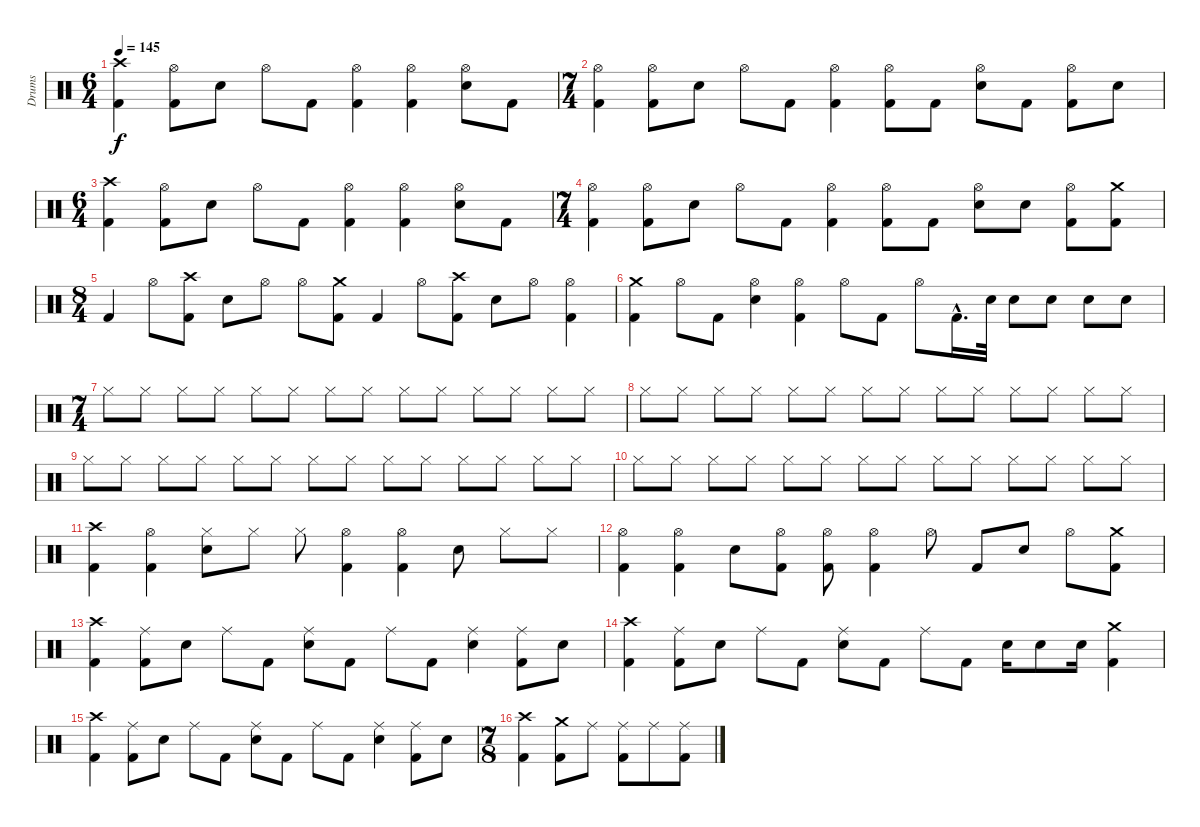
\track ("Drums" "Drums") {instrument percussion}
\staff {score}
\articulation defaults
\ts (6 4)
\tempo 145
\clef neutral
\ks c
("Crash high (hit)" "Kick (hit) 2").4{dy f} ("Hi-Hat (open)" "Kick (hit) 2").8 "Snare (hit) 2".8 "Hi-Hat (open)".8 "Kick (hit) 2".8 ("Hi-Hat (open)" "Kick (hit) 2").4 ("Hi-Hat (open)" "Kick (hit) 2").4 ("Hi-Hat (open)" "Snare (hit) 2").8 "Kick (hit) 2".8 |
\ts (7 4)
("Hi-Hat (open)" "Kick (hit) 2").4 ("Hi-Hat (open)" "Kick (hit) 2").8 "Snare (hit) 2".8 "Hi-Hat (open)".8 "Kick (hit) 2".8 ("Hi-Hat (open)" "Kick (hit) 2").4 ("Hi-Hat (open)" "Kick (hit) 2").8 "Kick (hit) 2".8 ("Hi-Hat (open)" "Snare (hit) 2").8 "Kick (hit) 2".8 ("Hi-Hat (open)" "Kick (hit) 2").8 "Snare (hit) 2".8 |
\ts (6 4)
("Crash high (hit)" "Kick (hit) 2").4 ("Hi-Hat (open)" "Kick (hit) 2").8 "Snare (hit) 2".8 "Hi-Hat (open)".8 "Kick (hit) 2".8 ("Hi-Hat (open)" "Kick (hit) 2").4 ("Hi-Hat (open)" "Kick (hit) 2").4 ("Hi-Hat (open)" "Snare (hit) 2").8 "Kick (hit) 2".8 |
\ts (7 4)
("Hi-Hat (open)" "Kick (hit) 2").4 ("Hi-Hat (open)" "Kick (hit) 2").8 "Snare (hit) 2".8 "Hi-Hat (open)".8 "Kick (hit) 2".8 ("Hi-Hat (open)" "Kick (hit) 2").4 ("Hi-Hat (open)" "Kick (hit) 2").8 "Kick (hit) 2".8 ("Hi-Hat (open)" "Snare (hit) 2").8 "Snare (hit) 2".8 ("Hi-Hat (open)" "Kick (hit) 2").8 ("Crash medium (hit)" "Kick (hit) 2").8 |
\ts (8 4)
"Kick (hit) 2".4 "Hi-Hat (open)".8 ("Crash high (hit)" "Kick (hit) 2").8 "Snare (hit) 2".8 "Hi-Hat (open)".8 "Hi-Hat (open)".8 ("Crash medium (hit)" "Kick (hit) 2").8 "Kick (hit) 2".4 "Hi-Hat (open)".8 ("Crash high (hit)" "Kick (hit) 2").8 "Snare (hit) 2".8 "Hi-Hat (open)".8 ("Hi-Hat (open)" "Kick (hit) 2").4 |
("Crash medium (hit)" "Kick (hit) 2").4 "Hi-Hat (open)".8 "Kick (hit) 2".8 ("Hi-Hat (open)" "Snare (hit) 2").4 ("Hi-Hat (open)" "Kick (hit) 2").4 "Hi-Hat (open)".8 "Kick (hit) 2".8 "Hi-Hat (open)".8 "Kick (hit) 2"{hac}.16{d} "Snare (hit) 2".32 "Snare (hit) 2".8 "Snare (hit) 2".8 "Snare (hit) 2".8 "Snare (hit) 2".8 |
\ts (7 4)
"Hi-Hat (closed)".8 "Hi-Hat (closed)".8 "Hi-Hat (closed)".8 "Hi-Hat (closed)".8 "Hi-Hat (closed)".8 "Hi-Hat (closed)".8 "Hi-Hat (closed)".8 "Hi-Hat (closed)".8 "Hi-Hat (closed)".8 "Hi-Hat (closed)".8 "Hi-Hat (closed)".8 "Hi-Hat (closed)".8 "Hi-Hat (closed)".8 "Hi-Hat (closed)".8 |
"Hi-Hat (closed)".8 "Hi-Hat (closed)".8 "Hi-Hat (closed)".8 "Hi-Hat (closed)".8 "Hi-Hat (closed)".8 "Hi-Hat (closed)".8 "Hi-Hat (closed)".8 "Hi-Hat (closed)".8 "Hi-Hat (closed)".8 "Hi-Hat (closed)".8 "Hi-Hat (closed)".8 "Hi-Hat (closed)".8 "Hi-Hat (closed)".8 "Hi-Hat (closed)".8 |
"Hi-Hat (closed)".8 "Hi-Hat (closed)".8 "Hi-Hat (closed)".8 "Hi-Hat (closed)".8 "Hi-Hat (closed)".8 "Hi-Hat (closed)".8 "Hi-Hat (closed)".8 "Hi-Hat (closed)".8 "Hi-Hat (closed)".8 "Hi-Hat (closed)".8 "Hi-Hat (closed)".8 "Hi-Hat (closed)".8 "Hi-Hat (closed)".8 "Hi-Hat (closed)".8 |
"Hi-Hat (closed)".8 "Hi-Hat (closed)".8 "Hi-Hat (closed)".8 "Hi-Hat (closed)".8 "Hi-Hat (closed)".8 "Hi-Hat (closed)".8 "Hi-Hat (closed)".8 "Hi-Hat (closed)".8 "Hi-Hat (closed)".8 "Hi-Hat (closed)".8 "Hi-Hat (closed)".8 "Hi-Hat (closed)".8 "Hi-Hat (closed)".8 "Hi-Hat (closed)".8 |
("Crash high (hit)" "Kick (hit) 2").4 ("Hi-Hat (open)" "Kick (hit) 2").4 ("Hi-Hat (closed)" "Snare (hit) 2").8 "Hi-Hat (closed)".8 "Hi-Hat (closed)".8 ("Hi-Hat (open)" "Kick (hit) 2").4 ("Hi-Hat (open)" "Kick (hit) 2").4 "Snare (hit) 2".8 "Hi-Hat (closed)".8 "Hi-Hat (closed)".8 |
("Hi-Hat (open)" "Kick (hit) 2").4 ("Hi-Hat (open)" "Kick (hit) 2").4 "Snare (hit) 2".8 ("Hi-Hat (open)" "Kick (hit) 2").8 ("Hi-Hat (open)" "Kick (hit) 2").8 ("Hi-Hat (open)" "Kick (hit) 2").4 "Hi-Hat (open)".8 "Kick (hit) 2".8 "Snare (hit) 2".8 "Hi-Hat (open)".8 ("Crash medium (hit)" "Kick (hit) 2").8 |
("Crash high (hit)" "Kick (hit) 2").4 ("Ride (middle)" "Kick (hit) 2").8 "Snare (hit) 2".8 "Ride (middle)".8 "Kick (hit) 2".8 ("Ride (middle)" "Snare (hit) 2").8 "Kick (hit) 2".8 "Ride (middle)".8 "Kick (hit) 2".8 ("Ride (middle)" "Snare (hit) 2").4 ("Ride (middle)" "Kick (hit) 2").8 "Snare (hit) 2".8 |
("Crash high (hit)" "Kick (hit) 2").4 ("Ride (middle)" "Kick (hit) 2").8 "Snare (hit) 2".8 "Ride (middle)".8 "Kick (hit) 2".8 ("Ride (middle)" "Snare (hit) 2").8 "Kick (hit) 2".8 "Ride (middle)".8 "Kick (hit) 2".8 "Snare (hit) 2".16 "Snare (hit) 2".8 "Snare (hit) 2".16 ("Crash medium (hit)" "Kick (hit) 2").4 |
("Crash high (hit)" "Kick (hit) 2").4 ("Ride (middle)" "Kick (hit) 2").8 "Snare (hit) 2".8 "Ride (middle)".8 "Kick (hit) 2".8 ("Ride (middle)" "Snare (hit) 2").8 "Kick (hit) 2".8 "Ride (middle)".8 "Kick (hit) 2".8 ("Ride (middle)" "Snare (hit) 2").4 ("Ride (middle)" "Kick (hit) 2").8 "Snare (hit) 2".8 |
\ts (7 8)
("Crash high (hit)" "Kick (hit) 2").4 ("Crash medium (hit)" "Kick (hit) 2").8 "Ride (middle)".8 ("Ride (middle)" "Kick (hit) 2").8 "Ride (middle)".8 ("Ride (middle)" "Kick (hit) 2").8
